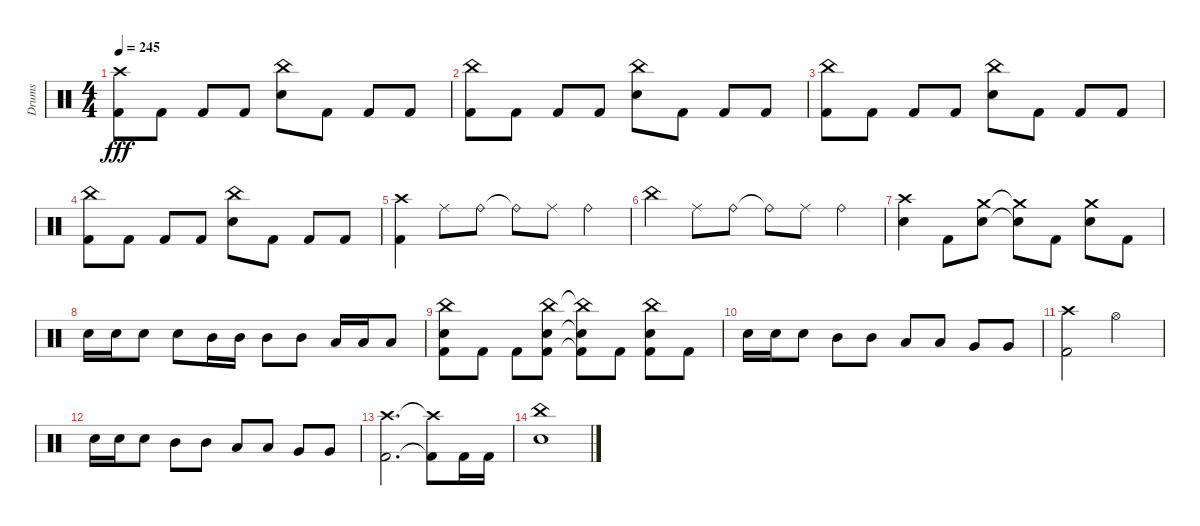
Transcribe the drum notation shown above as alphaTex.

\track ("Drums" "Drums") {instrument percussion}
\staff {score}
\articulation defaults
\ts (4 4)
\tempo 245
\clef neutral
\ks aminor
("Kick (hit) 2" "Crash high (hit)").8{dy fff} "Kick (hit) 2".8 "Kick (hit) 2".8 "Kick (hit) 2".8 ("Snare (hit) 2" "China (hit)").8 "Kick (hit) 2".8 "Kick (hit) 2".8 "Kick (hit) 2".8 |
("Kick (hit) 2" "China (hit)").8 "Kick (hit) 2".8 "Kick (hit) 2".8 "Kick (hit) 2".8 ("Snare (hit) 2" "China (hit)").8 "Kick (hit) 2".8 "Kick (hit) 2".8 "Kick (hit) 2".8 |
("Kick (hit) 2" "China (hit)").8 "Kick (hit) 2".8 "Kick (hit) 2".8 "Kick (hit) 2".8 ("Snare (hit) 2" "China (hit)").8 "Kick (hit) 2".8 "Kick (hit) 2".8 "Kick (hit) 2".8 |
("Kick (hit) 2" "China (hit)").8 "Kick (hit) 2".8 "Kick (hit) 2".8 "Kick (hit) 2".8 ("Snare (hit) 2" "China (hit)").8 "Kick (hit) 2".8 "Kick (hit) 2".8 "Kick (hit) 2".8 |
("Kick (hit) 2" "Crash high (hit)").4 "Ride (middle)".8 "Ride (bell)".8 "Ride (bell)"{t}.8 "Ride (middle)".8 "Ride (bell)".4 |
"China (hit)".4 "Ride (middle)".8 "Ride (bell)".8 "Ride (bell)"{t}.8 "Ride (middle)".8 "Ride (bell)".4 |
("Snare (hit) 2" "Crash high (hit)").4 "Kick (hit) 2".8 ("Snare (hit) 2" "Crash medium (hit)").8 ("Snare (hit) 2"{t} "Crash medium (hit)"{t}).8 "Kick (hit) 2".8 ("Snare (hit) 2" "Crash medium (hit)").8 "Kick (hit) 2".8 |
"Snare (hit) 2".16 "Snare (hit) 2".16 "Snare (hit) 2".8 "Snare (hit) 2".8 "Mid Tom (hit)".16 "Mid Tom (hit)".16 "Mid Tom (hit)".8 "Mid Tom (hit)".8 "Low Tom (hit)".16 "Low Tom (hit)".16 "Low Tom (hit)".8 |
("Snare (hit) 2" "Kick (hit) 2" "China (hit)").8 "Kick (hit) 2".8 "Kick (hit) 2".8 ("Kick (hit) 2" "Snare (hit) 2" "China (hit)").8 ("Kick (hit) 2"{t} "Snare (hit) 2"{t} "China (hit)"{t}).8 "Kick (hit) 2".8 ("Kick (hit) 2" "Snare (hit) 2" "China (hit)").8 "Kick (hit) 2".8 |
"Snare (hit) 2".16 "Snare (hit) 2".16 "Snare (hit) 2".8 "Mid Tom (hit)".8 "Mid Tom (hit)".8 "Low Tom (hit)".8 "Low Tom (hit)".8 "Very Low Tom (hit)".8 "Very Low Tom (hit)".8 |
("Kick (hit) 2" "Crash high (hit)").2 "Hi-Hat (open)".2 |
"Snare (hit) 2".16 "Snare (hit) 2".16 "Snare (hit) 2".8 "Mid Tom (hit)".8 "Mid Tom (hit)".8 "Low Tom (hit)".8 "Low Tom (hit)".8 "Very Low Tom (hit)".8 "Very Low Tom (hit)".8 |
("Kick (hit) 2" "Crash high (hit)").2{d} ("Kick (hit) 2"{t} "Crash high (hit)"{t}).8 "Kick (hit) 2".16 "Kick (hit) 2".16 |
("Snare (hit) 2" "China (hit)").1
